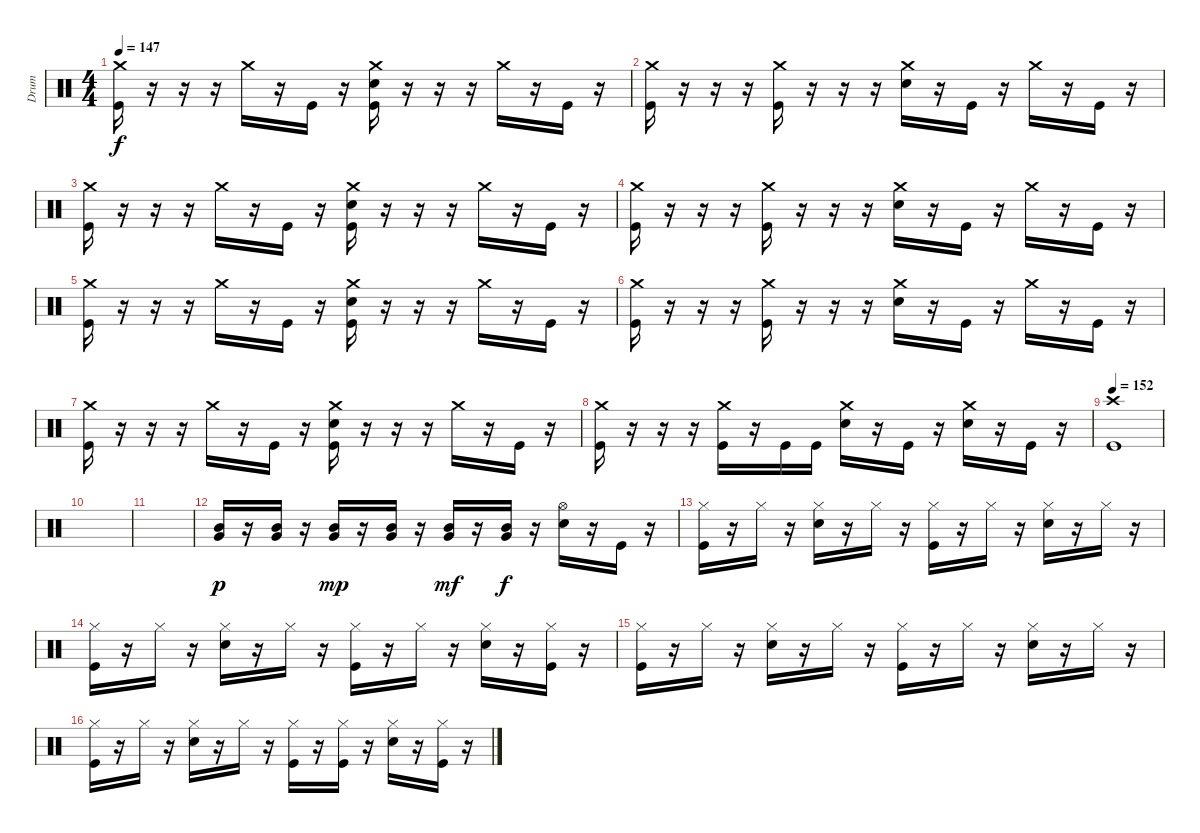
\track ("Drum" "Drum") {instrument percussion}
\staff {score}
\articulation defaults
\ts (4 4)
\tempo 147
\clef neutral
\ks c
("Crash medium (hit)" "Kick (hit)").16{dy f} r.16 r.16 r.16 "Crash medium (hit)".16 r.16 "Kick (hit)".16 r.16 ("Crash medium (hit)" "Electric Snare (hit)" "Kick (hit)").16 r.16 r.16 r.16 "Crash medium (hit)".16 r.16 "Kick (hit)".16 r.16 |
("Crash medium (hit)" "Kick (hit)").16 r.16 r.16 r.16 ("Crash medium (hit)" "Kick (hit)").16 r.16 r.16 r.16 ("Crash medium (hit)" "Electric Snare (hit)").16 r.16 "Kick (hit)".16 r.16 "Crash medium (hit)".16 r.16 "Kick (hit)".16 r.16 |
("Crash medium (hit)" "Kick (hit)").16 r.16 r.16 r.16 "Crash medium (hit)".16 r.16 "Kick (hit)".16 r.16 ("Crash medium (hit)" "Electric Snare (hit)" "Kick (hit)").16 r.16 r.16 r.16 "Crash medium (hit)".16 r.16 "Kick (hit)".16 r.16 |
("Crash medium (hit)" "Kick (hit)").16 r.16 r.16 r.16 ("Crash medium (hit)" "Kick (hit)").16 r.16 r.16 r.16 ("Crash medium (hit)" "Electric Snare (hit)").16 r.16 "Kick (hit)".16 r.16 "Crash medium (hit)".16 r.16 "Kick (hit)".16 r.16 |
("Crash medium (hit)" "Kick (hit)").16 r.16 r.16 r.16 "Crash medium (hit)".16 r.16 "Kick (hit)".16 r.16 ("Crash medium (hit)" "Electric Snare (hit)" "Kick (hit)").16 r.16 r.16 r.16 "Crash medium (hit)".16 r.16 "Kick (hit)".16 r.16 |
("Crash medium (hit)" "Kick (hit)").16 r.16 r.16 r.16 ("Crash medium (hit)" "Kick (hit)").16 r.16 r.16 r.16 ("Crash medium (hit)" "Electric Snare (hit)").16 r.16 "Kick (hit)".16 r.16 "Crash medium (hit)".16 r.16 "Kick (hit)".16 r.16 |
("Crash medium (hit)" "Kick (hit)").16 r.16 r.16 r.16 "Crash medium (hit)".16 r.16 "Kick (hit)".16 r.16 ("Crash medium (hit)" "Electric Snare (hit)" "Kick (hit)").16 r.16 r.16 r.16 "Crash medium (hit)".16 r.16 "Kick (hit)".16 r.16 |
("Crash medium (hit)" "Kick (hit)").16 r.16 r.16 r.16 ("Crash medium (hit)" "Kick (hit)").16 r.16 "Kick (hit)".16 "Kick (hit)".16 ("Crash medium (hit)" "Electric Snare (hit)").16 r.16 "Kick (hit)".16 r.16 ("Crash medium (hit)" "Electric Snare (hit)").16 r.16 "Kick (hit)".16 r.16 |
\tempo 152
("Crash high (hit)" "Kick (hit)").1 |
|
|
("Mid Tom (hit)" "Very Low Tom (hit)").16{dy p} r.16 ("Mid Tom (hit)" "Very Low Tom (hit)").16 r.16 ("Mid Tom (hit)" "Very Low Tom (hit)").16{dy mp} r.16 ("Mid Tom (hit)" "Very Low Tom (hit)").16 r.16 ("Mid Tom (hit)" "Very Low Tom (hit)").16{dy mf} r.16 ("Mid Tom (hit)" "Very Low Tom (hit)").16{dy f} r.16 ("Hi-Hat (open)" "Electric Snare (hit)").16 r.16 "Kick (hit)".16 r.16 |
("Hi-Hat (closed)" "Kick (hit)").16 r.16 "Hi-Hat (closed)".16 r.16 ("Hi-Hat (closed)" "Electric Snare (hit)").16 r.16 "Hi-Hat (closed)".16 r.16 ("Hi-Hat (closed)" "Kick (hit)").16 r.16 "Hi-Hat (closed)".16 r.16 ("Hi-Hat (closed)" "Electric Snare (hit)").16 r.16 "Hi-Hat (closed)".16 r.16 |
("Hi-Hat (closed)" "Kick (hit)").16 r.16 "Hi-Hat (closed)".16 r.16 ("Hi-Hat (closed)" "Electric Snare (hit)").16 r.16 "Hi-Hat (closed)".16 r.16 ("Hi-Hat (closed)" "Kick (hit)").16 r.16 "Hi-Hat (closed)".16 r.16 ("Hi-Hat (closed)" "Electric Snare (hit)").16 r.16 ("Hi-Hat (closed)" "Kick (hit)").16 r.16 |
("Hi-Hat (closed)" "Kick (hit)").16 r.16 "Hi-Hat (closed)".16 r.16 ("Hi-Hat (closed)" "Electric Snare (hit)").16 r.16 "Hi-Hat (closed)".16 r.16 ("Hi-Hat (closed)" "Kick (hit)").16 r.16 "Hi-Hat (closed)".16 r.16 ("Hi-Hat (closed)" "Electric Snare (hit)").16 r.16 "Hi-Hat (closed)".16 r.16 |
("Hi-Hat (closed)" "Kick (hit)").16 r.16 "Hi-Hat (closed)".16 r.16 ("Hi-Hat (closed)" "Electric Snare (hit)").16 r.16 "Hi-Hat (closed)".16 r.16 ("Hi-Hat (closed)" "Kick (hit)").16 r.16 ("Hi-Hat (closed)" "Kick (hit)").16 r.16 ("Hi-Hat (closed)" "Electric Snare (hit)").16 r.16 ("Hi-Hat (closed)" "Kick (hit)").16 r.16
